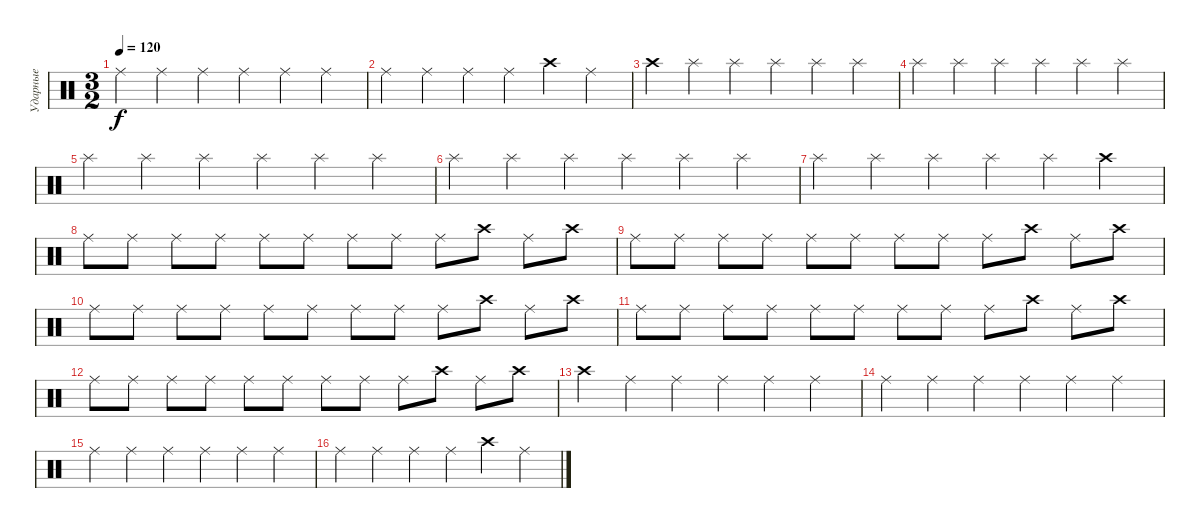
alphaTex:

\track ("Ударные" "Ударные") {instrument percussion}
\staff {score}
\articulation defaults
\ts (3 2)
\tempo 120
\clef neutral
\ks c "Ride (middle)".4{dy f} "Ride (middle)".4 "Ride (middle)".4 "Ride (middle)".4 "Ride (middle)".4 "Ride (middle)".4
|
"Ride (middle)".4 "Ride (middle)".4 "Ride (middle)".4 "Ride (middle)".4 "Crash high (hit)".4 "Ride (middle)".4 |
"Crash high (hit)".4 "Splash (hit)".4 "Splash (hit)".4 "Splash (hit)".4 "Splash (hit)".4 "Splash (hit)".4 |
"Splash (hit)".4 "Splash (hit)".4 "Splash (hit)".4 "Splash (hit)".4 "Splash (hit)".4 "Splash (hit)".4 |
"Splash (hit)".4 "Splash (hit)".4 "Splash (hit)".4 "Splash (hit)".4 "Splash (hit)".4 "Splash (hit)".4 |
"Splash (hit)".4 "Splash (hit)".4 "Splash (hit)".4 "Splash (hit)".4 "Splash (hit)".4 "Splash (hit)".4 |
"Splash (hit)".4 "Splash (hit)".4 "Splash (hit)".4 "Splash (hit)".4 "Splash (hit)".4 "Crash high (hit)".4 |
"Ride (middle)".8 "Ride (middle)".8 "Ride (middle)".8 "Ride (middle)".8 "Ride (middle)".8 "Ride (middle)".8 "Ride (middle)".8 "Ride (middle)".8 "Ride (middle)".8 "Crash high (hit)".8 "Ride (middle)".8 "Crash high (hit)".8 |
"Ride (middle)".8 "Ride (middle)".8 "Ride (middle)".8 "Ride (middle)".8 "Ride (middle)".8 "Ride (middle)".8 "Ride (middle)".8 "Ride (middle)".8 "Ride (middle)".8 "Crash high (hit)".8 "Ride (middle)".8 "Crash high (hit)".8 |
"Ride (middle)".8 "Ride (middle)".8 "Ride (middle)".8 "Ride (middle)".8 "Ride (middle)".8 "Ride (middle)".8 "Ride (middle)".8 "Ride (middle)".8 "Ride (middle)".8 "Crash high (hit)".8 "Ride (middle)".8 "Crash high (hit)".8 |
"Ride (middle)".8 "Ride (middle)".8 "Ride (middle)".8 "Ride (middle)".8 "Ride (middle)".8 "Ride (middle)".8 "Ride (middle)".8 "Ride (middle)".8 "Ride (middle)".8 "Crash high (hit)".8 "Ride (middle)".8 "Crash high (hit)".8 |
"Ride (middle)".8 "Ride (middle)".8 "Ride (middle)".8 "Ride (middle)".8 "Ride (middle)".8 "Ride (middle)".8 "Ride (middle)".8 "Ride (middle)".8 "Ride (middle)".8 "Crash high (hit)".8 "Ride (middle)".8 "Crash high (hit)".8 |
"Crash high (hit)".4 "Ride (middle)".4 "Ride (middle)".4 "Ride (middle)".4 "Ride (middle)".4 "Ride (middle)".4 |
"Ride (middle)".4 "Ride (middle)".4 "Ride (middle)".4 "Ride (middle)".4 "Ride (middle)".4 "Ride (middle)".4 |
"Ride (middle)".4 "Ride (middle)".4 "Ride (middle)".4 "Ride (middle)".4 "Ride (middle)".4 "Ride (middle)".4 |
"Ride (middle)".4 "Ride (middle)".4 "Ride (middle)".4 "Ride (middle)".4 "Crash high (hit)".4 "Ride (middle)".4
